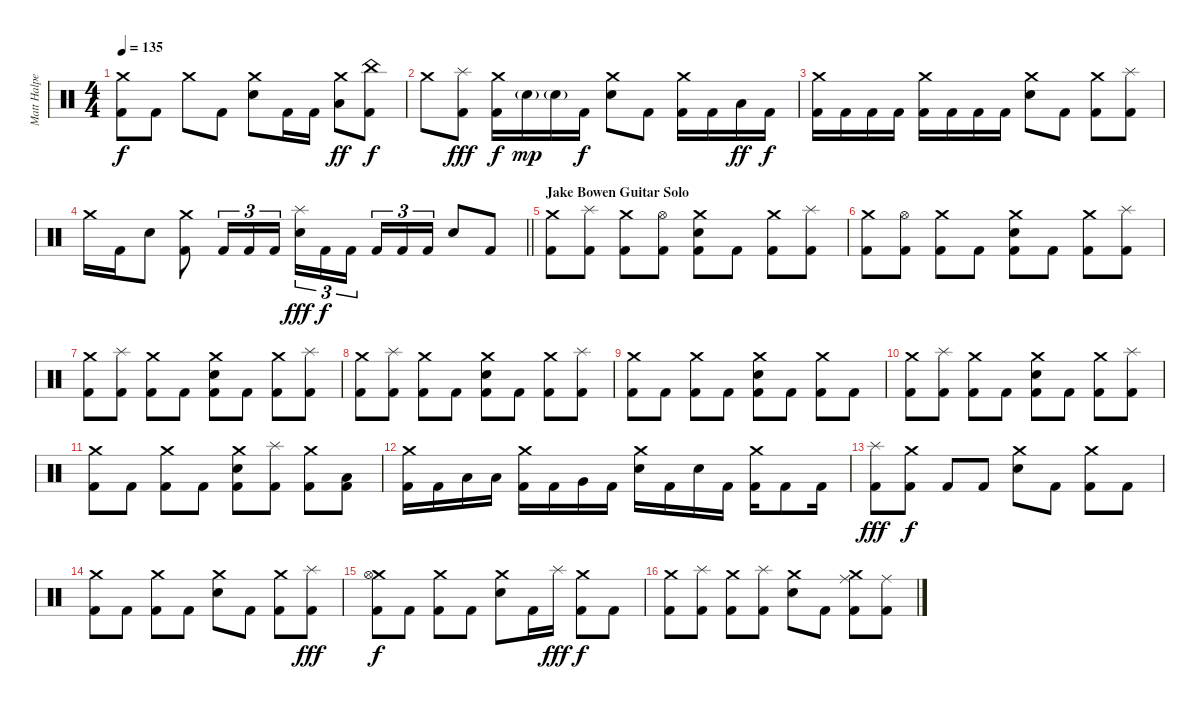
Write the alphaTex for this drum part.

\track ("Matt Halpern - Drums" "Matt Halpe") {instrument percussion}
\staff {score}
\articulation defaults
\ts (4 4)
\tempo 135
\clef neutral
\ks c
("Crash medium (hit)" "Kick (hit) 2").8{dy f} "Kick (hit) 2".8 "Crash medium (hit)".8 "Kick (hit) 2".8 ("Crash medium (hit)" "Electric Snare (hit)").8 "Kick (hit) 2".16 "Kick (hit) 2".16 ("Crash medium (hit)" "Low Floor Tom (hit)").8{dy ff} ("China (hit)" "Kick (hit) 2").8{dy f} |
"Crash medium (hit)".8 ("Splash (hit)" "Kick (hit) 2").8{dy fff} ("Crash medium (hit)" "Kick (hit) 2").16{dy f} "Electric Snare (hit)"{g}.16{dy mp} "Electric Snare (hit)"{g}.16 "Kick (hit) 2".16{dy f} ("Crash medium (hit)" "Electric Snare (hit)").8 "Kick (hit) 2".8 ("Crash medium (hit)" "Kick (hit) 2").16 "Kick (hit) 2".16 "Low Tom (hit)".16{dy ff} "Kick (hit) 2".16{dy f} |
("Crash medium (hit)" "Kick (hit) 2").16 "Kick (hit) 2".16 "Kick (hit) 2".16 "Kick (hit) 2".16 ("Crash medium (hit)" "Kick (hit) 2").16 "Kick (hit) 2".16 "Kick (hit) 2".16 "Kick (hit) 2".16 ("Crash medium (hit)" "Electric Snare (hit)").8 "Kick (hit) 2".8 ("Crash medium (hit)" "Kick (hit) 2").8 ("Splash (hit)" "Kick (hit) 2").8 |
\barLineRight lightlight "Crash medium (hit)".16 "Kick (hit) 2".16 "Electric Snare (hit)".8
("Crash medium (hit)" "Kick (hit) 2").8 "Kick (hit) 2".16{tu (3 2)} "Kick (hit) 2".16{tu (3 2)} "Kick (hit) 2".16{tu (3 2)} ("Splash (hit)" "Electric Snare (hit)").16{tu (3 2) dy fff} "Kick (hit) 2".16{tu (3 2) dy f} "Kick (hit) 2".16{tu (3 2) beam splitsecondary} "Kick (hit) 2".16{tu (3 2)} "Kick (hit) 2".16{tu (3 2)} "Kick (hit) 2".16{tu (3 2)} "Electric Snare (hit)".8 "Kick (hit) 2".8 |
\section ("" "Jake Bowen Guitar Solo")
("Crash medium (hit)" "Kick (hit) 2").8 ("Splash (hit)" "Kick (hit) 2").8 ("Crash medium (hit)" "Kick (hit) 2").8 ("Hi-Hat (open)" "Kick (hit) 2").8 ("Crash medium (hit)" "Electric Snare (hit)" "Kick (hit) 2").8 "Kick (hit) 2".8 ("Crash medium (hit)" "Kick (hit) 2").8 ("Splash (hit)" "Kick (hit) 2").8 |
("Crash medium (hit)" "Kick (hit) 2").8 ("Hi-Hat (open)" "Kick (hit) 2").8 ("Crash medium (hit)" "Kick (hit) 2").8 "Kick (hit) 2".8 ("Crash medium (hit)" "Electric Snare (hit)" "Kick (hit) 2").8 "Kick (hit) 2".8 ("Crash medium (hit)" "Kick (hit) 2").8 ("Splash (hit)" "Kick (hit) 2").8 |
("Crash medium (hit)" "Kick (hit) 2").8 ("Splash (hit)" "Kick (hit) 2").8 ("Crash medium (hit)" "Kick (hit) 2").8 "Kick (hit) 2".8 ("Crash medium (hit)" "Electric Snare (hit)" "Kick (hit) 2").8 "Kick (hit) 2".8 ("Crash medium (hit)" "Kick (hit) 2").8 ("Splash (hit)" "Kick (hit) 2").8 |
("Crash medium (hit)" "Kick (hit) 2").8 ("Splash (hit)" "Kick (hit) 2").8 ("Crash medium (hit)" "Kick (hit) 2").8 "Kick (hit) 2".8 ("Crash medium (hit)" "Electric Snare (hit)" "Kick (hit) 2").8 "Kick (hit) 2".8 ("Crash medium (hit)" "Kick (hit) 2").8 ("Splash (hit)" "Kick (hit) 2").8 |
("Crash medium (hit)" "Kick (hit) 2").8 "Kick (hit) 2".8 ("Crash medium (hit)" "Kick (hit) 2").8 "Kick (hit) 2".8 ("Crash medium (hit)" "Electric Snare (hit)" "Kick (hit) 2").8 "Kick (hit) 2".8 ("Crash medium (hit)" "Kick (hit) 2").8 "Kick (hit) 2".8 |
("Crash medium (hit)" "Kick (hit) 2").8 ("Splash (hit)" "Kick (hit) 2").8 ("Crash medium (hit)" "Kick (hit) 2").8 "Kick (hit) 2".8 ("Crash medium (hit)" "Electric Snare (hit)" "Kick (hit) 2").8 "Kick (hit) 2".8 ("Crash medium (hit)" "Kick (hit) 2").8 ("Splash (hit)" "Kick (hit) 2").8 |
("Crash medium (hit)" "Kick (hit) 2").8 "Kick (hit) 2".8 ("Crash medium (hit)" "Kick (hit) 2").8 "Kick (hit) 2".8 ("Crash medium (hit)" "Electric Snare (hit)" "Kick (hit) 2").8 ("Splash (hit)" "Kick (hit) 2").8 ("Crash medium (hit)" "Kick (hit) 2").8 ("Low Tom (hit)" "Kick (hit) 2").8 |
("Crash medium (hit)" "Kick (hit) 2").16 "Kick (hit) 2".16 "Low Tom (hit)".16 "Low Tom (hit)".16 ("Crash medium (hit)" "Kick (hit) 2").16 "Kick (hit) 2".16 "Very Low Tom (hit)".16 "Kick (hit) 2".16 ("Crash medium (hit)" "Electric Snare (hit)").16 "Kick (hit) 2".16 "Electric Snare (hit)".16 "Kick (hit) 2".16 ("Crash medium (hit)" "Kick (hit) 2").16 "Kick (hit) 2".8 "Kick (hit) 2".16 |
("Splash (hit)" "Kick (hit) 2").8{dy fff} ("Crash medium (hit)" "Kick (hit) 2").8{dy f} "Kick (hit) 2".8 "Kick (hit) 2".8 ("Crash medium (hit)" "Electric Snare (hit)").8 "Kick (hit) 2".8 ("Crash medium (hit)" "Kick (hit) 2").8 "Kick (hit) 2".8 |
("Crash medium (hit)" "Kick (hit) 2").8 "Kick (hit) 2".8 ("Crash medium (hit)" "Kick (hit) 2").8 "Kick (hit) 2".8 ("Crash medium (hit)" "Electric Snare (hit)").8 "Kick (hit) 2".8 ("Crash medium (hit)" "Kick (hit) 2").8 ("Splash (hit)" "Kick (hit) 2").8{dy fff} |
("Crash medium (hit)" "Hi-Hat (open)" "Kick (hit) 2").8{dy f} "Kick (hit) 2".8 ("Crash medium (hit)" "Kick (hit) 2").8 "Kick (hit) 2".8 ("Crash medium (hit)" "Electric Snare (hit)").8 "Kick (hit) 2".16 "Splash (hit)".16{dy fff} ("Crash medium (hit)" "Kick (hit) 2").8{dy f} "Kick (hit) 2".8 |
("Crash medium (hit)" "Kick (hit) 2").8 ("Splash (hit)" "Kick (hit) 2").8 ("Crash medium (hit)" "Kick (hit) 2").8 ("Splash (hit)" "Kick (hit) 2").8 ("Crash medium (hit)" "Electric Snare (hit)").8 "Kick (hit) 2".8 ("Crash medium (hit)" "Ride (middle)" "Kick (hit) 2").8 ("Ride (middle)" "Kick (hit) 2").8
